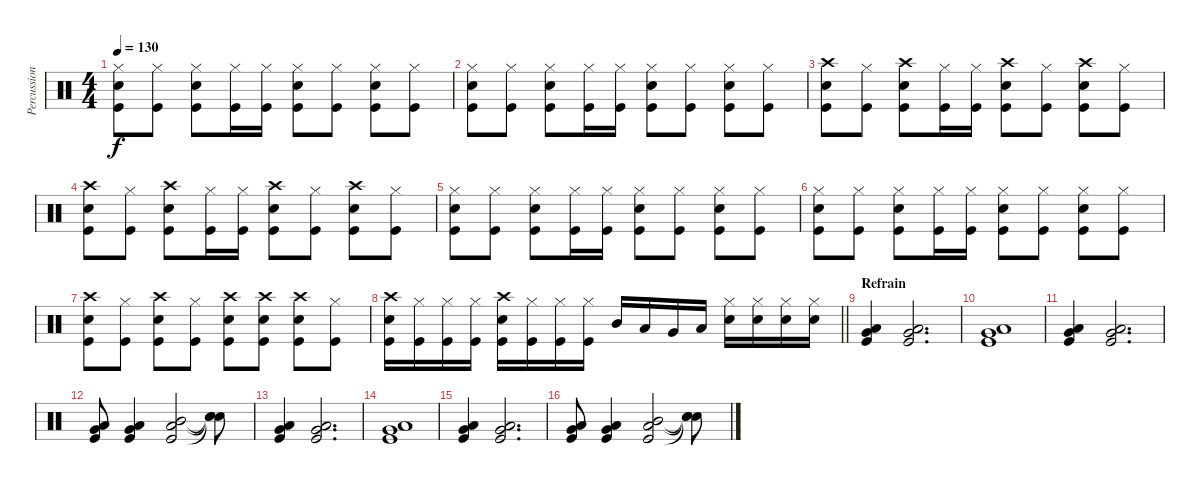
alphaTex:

\track ("Percussions" "Percussion") {instrument percussion}
\staff {score}
\articulation defaults
\ts (4 4)
\tempo 130
\clef neutral
\ks c
("Snare (hit) 2" "Kick (hit)" "Hi-Hat (closed)").8{dy f} ("Kick (hit)" "Hi-Hat (closed)").8 ("Snare (hit) 2" "Kick (hit)" "Hi-Hat (closed)").8 ("Kick (hit)" "Hi-Hat (closed)").16 ("Kick (hit)" "Hi-Hat (closed)").16 ("Snare (hit) 2" "Kick (hit)" "Hi-Hat (closed)").8 ("Kick (hit)" "Hi-Hat (closed)").8 ("Snare (hit) 2" "Kick (hit)" "Hi-Hat (closed)").8 ("Kick (hit)" "Hi-Hat (closed)").8 |
("Snare (hit) 2" "Kick (hit)" "Hi-Hat (closed)").8 ("Kick (hit)" "Hi-Hat (closed)").8 ("Snare (hit) 2" "Kick (hit)" "Hi-Hat (closed)").8 ("Kick (hit)" "Hi-Hat (closed)").16 ("Kick (hit)" "Hi-Hat (closed)").16 ("Snare (hit) 2" "Kick (hit)" "Hi-Hat (closed)").8 ("Kick (hit)" "Hi-Hat (closed)").8 ("Snare (hit) 2" "Kick (hit)" "Hi-Hat (closed)").8 ("Kick (hit)" "Hi-Hat (closed)").8 |
("Snare (hit) 2" "Kick (hit)" "Crash high (hit)").8 ("Kick (hit)" "Hi-Hat (closed)").8 ("Snare (hit) 2" "Kick (hit)" "Crash high (hit)").8 ("Kick (hit)" "Hi-Hat (closed)").16 ("Kick (hit)" "Hi-Hat (closed)").16 ("Snare (hit) 2" "Kick (hit)" "Crash high (hit)").8 ("Kick (hit)" "Hi-Hat (closed)").8 ("Snare (hit) 2" "Kick (hit)" "Crash high (hit)").8 ("Kick (hit)" "Hi-Hat (closed)").8 |
("Snare (hit) 2" "Kick (hit)" "Crash high (hit)").8 ("Kick (hit)" "Hi-Hat (closed)").8 ("Snare (hit) 2" "Kick (hit)" "Crash high (hit)").8 ("Kick (hit)" "Hi-Hat (closed)").16 ("Kick (hit)" "Hi-Hat (closed)").16 ("Snare (hit) 2" "Kick (hit)" "Crash high (hit)").8 ("Kick (hit)" "Hi-Hat (closed)").8 ("Snare (hit) 2" "Kick (hit)" "Crash high (hit)").8 ("Kick (hit)" "Hi-Hat (closed)").8 |
("Snare (hit) 2" "Kick (hit)" "Hi-Hat (closed)").8 ("Kick (hit)" "Hi-Hat (closed)").8 ("Snare (hit) 2" "Kick (hit)" "Hi-Hat (closed)").8 ("Kick (hit)" "Hi-Hat (closed)").16 ("Kick (hit)" "Hi-Hat (closed)").16 ("Snare (hit) 2" "Kick (hit)" "Hi-Hat (closed)").8 ("Kick (hit)" "Hi-Hat (closed)").8 ("Snare (hit) 2" "Kick (hit)" "Hi-Hat (closed)").8 ("Kick (hit)" "Hi-Hat (closed)").8 |
("Snare (hit) 2" "Kick (hit)" "Hi-Hat (closed)").8 ("Kick (hit)" "Hi-Hat (closed)").8 ("Snare (hit) 2" "Kick (hit)" "Hi-Hat (closed)").8 ("Kick (hit)" "Hi-Hat (closed)").16 ("Kick (hit)" "Hi-Hat (closed)").16 ("Snare (hit) 2" "Kick (hit)" "Hi-Hat (closed)").8 ("Kick (hit)" "Hi-Hat (closed)").8 ("Snare (hit) 2" "Kick (hit)" "Hi-Hat (closed)").8 ("Kick (hit)" "Hi-Hat (closed)").8 |
("Snare (hit) 2" "Kick (hit)" "Crash high (hit)").8 ("Kick (hit)" "Hi-Hat (closed)").8 ("Snare (hit) 2" "Kick (hit)" "Crash high (hit)").8 ("Kick (hit)" "Hi-Hat (closed)").8 ("Snare (hit) 2" "Kick (hit)" "Crash high (hit)").8 ("Snare (hit) 2" "Kick (hit)" "Crash high (hit)").8 ("Snare (hit) 2" "Kick (hit)" "Crash high (hit)").8 ("Kick (hit)" "Hi-Hat (closed)").8 |
\barLineRight lightlight
("Snare (hit) 2" "Kick (hit)" "Crash high (hit)").16 ("Kick (hit)" "Hi-Hat (closed)").16 ("Kick (hit)" "Hi-Hat (closed)").16 ("Kick (hit)" "Hi-Hat (closed)").16 ("Snare (hit) 2" "Kick (hit)" "Crash high (hit)").16 ("Kick (hit)" "Hi-Hat (closed)").16 ("Kick (hit)" "Hi-Hat (closed)").16 ("Kick (hit)" "Hi-Hat (closed)").16 "Mid Tom (hit)".16 "Low Tom (hit)".16 "Very Low Tom (hit)".16 "Low Floor Tom (hit)".16 ("Snare (hit) 2" "Hi-Hat (closed)").16 ("Snare (hit) 2" "Hi-Hat (closed)").16 ("Snare (hit) 2" "Hi-Hat (closed)").16 ("Snare (hit) 2" "Hi-Hat (closed)").16 |
\section ("" "Refrain")
("Low Tom (hit)" "Very Low Tom (hit)" "Kick (hit)").4 ("Low Tom (hit)" "Very Low Tom (hit)" "Kick (hit)").2{d} |
("Low Tom (hit)" "Very Low Tom (hit)" "Kick (hit)").1 |
("Low Tom (hit)" "Very Low Tom (hit)" "Kick (hit)").4 ("Low Tom (hit)" "Very Low Tom (hit)" "Kick (hit)").2{d} |
("Low Tom (hit)" "Very Low Tom (hit)" "Kick (hit)").8 ("Low Tom (hit)" "Very Low Tom (hit)" "Kick (hit)").4 ("Mid Tom (hit)" "Low Tom (hit)" "Kick (hit)").2 ("Snare (hit)"{t} "Snare (hit)"{t} "Snare (hit)"{t}).8 |
("Low Tom (hit)" "Very Low Tom (hit)" "Kick (hit)").4 ("Low Tom (hit)" "Very Low Tom (hit)" "Kick (hit)").2{d} |
("Low Tom (hit)" "Very Low Tom (hit)" "Kick (hit)").1 |
("Low Tom (hit)" "Very Low Tom (hit)" "Kick (hit)").4 ("Low Tom (hit)" "Very Low Tom (hit)" "Kick (hit)").2{d} |
("Low Tom (hit)" "Very Low Tom (hit)" "Kick (hit)").8 ("Low Tom (hit)" "Very Low Tom (hit)" "Kick (hit)").4 ("Mid Tom (hit)" "Low Tom (hit)" "Kick (hit)").2 ("Snare (hit)"{t} "Snare (hit)"{t} "Snare (hit)"{t}).8
